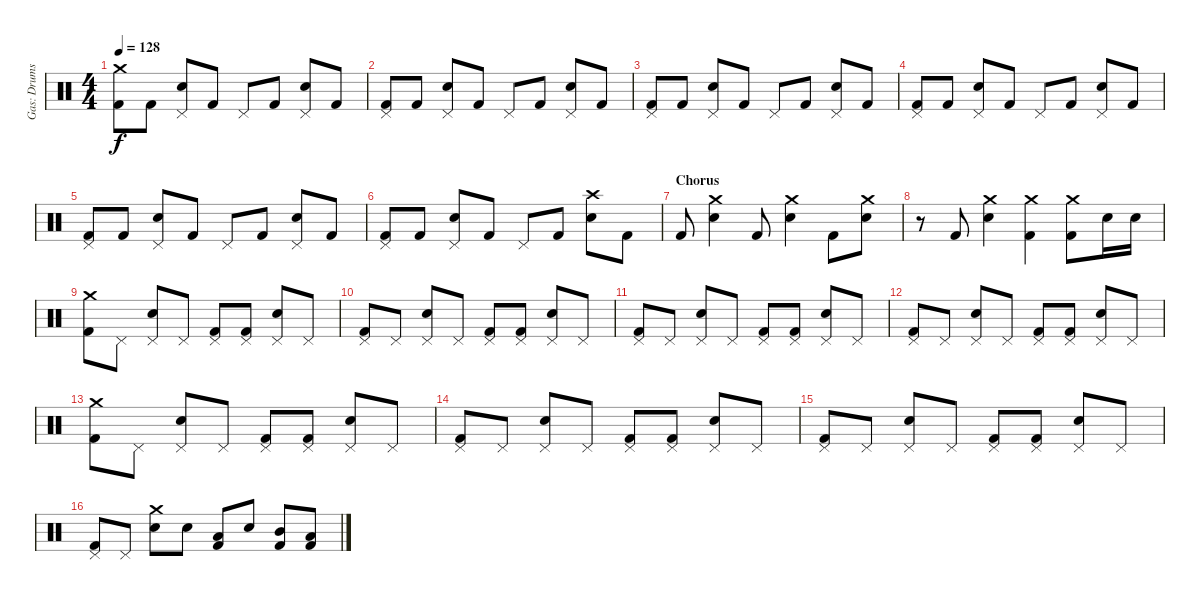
\track ("Gas: Drums" "Gas: Drums") {instrument percussion}
\staff {score}
\articulation defaults
\ts (4 4)
\tempo 128
\clef neutral
\ks c
("Crash medium (hit)" "Kick (hit) 2").8{dy f} "Kick (hit) 2".8 ("Pedal Hi-Hat (hit)" "Electric Snare (hit)").8 "Kick (hit) 2".8 "Pedal Hi-Hat (hit)".8 "Kick (hit) 2".8 ("Pedal Hi-Hat (hit)" "Electric Snare (hit)").8 "Kick (hit) 2".8 |
("Pedal Hi-Hat (hit)" "Kick (hit) 2").8 "Kick (hit) 2".8 ("Pedal Hi-Hat (hit)" "Electric Snare (hit)").8 "Kick (hit) 2".8 "Pedal Hi-Hat (hit)".8 "Kick (hit) 2".8 ("Pedal Hi-Hat (hit)" "Electric Snare (hit)").8 "Kick (hit) 2".8 |
("Pedal Hi-Hat (hit)" "Kick (hit) 2").8 "Kick (hit) 2".8 ("Pedal Hi-Hat (hit)" "Electric Snare (hit)").8 "Kick (hit) 2".8 "Pedal Hi-Hat (hit)".8 "Kick (hit) 2".8 ("Pedal Hi-Hat (hit)" "Electric Snare (hit)").8 "Kick (hit) 2".8 |
("Pedal Hi-Hat (hit)" "Kick (hit) 2").8 "Kick (hit) 2".8 ("Pedal Hi-Hat (hit)" "Electric Snare (hit)").8 "Kick (hit) 2".8 "Pedal Hi-Hat (hit)".8 "Kick (hit) 2".8 ("Pedal Hi-Hat (hit)" "Electric Snare (hit)").8 "Kick (hit) 2".8 |
("Pedal Hi-Hat (hit)" "Kick (hit) 2").8 "Kick (hit) 2".8 ("Pedal Hi-Hat (hit)" "Electric Snare (hit)").8 "Kick (hit) 2".8 "Pedal Hi-Hat (hit)".8 "Kick (hit) 2".8 ("Pedal Hi-Hat (hit)" "Electric Snare (hit)").8 "Kick (hit) 2".8 |
("Pedal Hi-Hat (hit)" "Kick (hit) 2").8 "Kick (hit) 2".8 ("Pedal Hi-Hat (hit)" "Electric Snare (hit)").8 "Kick (hit) 2".8 "Pedal Hi-Hat (hit)".8 "Kick (hit) 2".8 ("Crash high (hit)" "Electric Snare (hit)").8 "Kick (hit) 2".8 |
\section ("" "Chorus")
"Kick (hit) 2".8 ("Crash medium (hit)" "Electric Snare (hit)").4 "Kick (hit) 2".8 ("Crash medium (hit)" "Electric Snare (hit)").4 "Kick (hit) 2".8 ("Crash medium (hit)" "Electric Snare (hit)").8 |
r.8 "Kick (hit) 2".8 ("Crash medium (hit)" "Electric Snare (hit)").4 ("Crash medium (hit)" "Kick (hit) 2").4 ("Crash medium (hit)" "Kick (hit) 2").8 "Electric Snare (hit)".16 "Electric Snare (hit)".16 |
("Crash medium (hit)" "Kick (hit) 2").8 "Pedal Hi-Hat (hit)".8 ("Pedal Hi-Hat (hit)" "Electric Snare (hit)").8 "Pedal Hi-Hat (hit)".8 ("Pedal Hi-Hat (hit)" "Kick (hit) 2").8 ("Pedal Hi-Hat (hit)" "Kick (hit) 2").8 ("Pedal Hi-Hat (hit)" "Electric Snare (hit)").8 "Pedal Hi-Hat (hit)".8 |
("Pedal Hi-Hat (hit)" "Kick (hit) 2").8 "Pedal Hi-Hat (hit)".8 ("Pedal Hi-Hat (hit)" "Electric Snare (hit)").8 "Pedal Hi-Hat (hit)".8 ("Pedal Hi-Hat (hit)" "Kick (hit) 2").8 ("Pedal Hi-Hat (hit)" "Kick (hit) 2").8 ("Pedal Hi-Hat (hit)" "Electric Snare (hit)").8 "Pedal Hi-Hat (hit)".8 |
("Pedal Hi-Hat (hit)" "Kick (hit) 2").8 "Pedal Hi-Hat (hit)".8 ("Pedal Hi-Hat (hit)" "Electric Snare (hit)").8 "Pedal Hi-Hat (hit)".8 ("Pedal Hi-Hat (hit)" "Kick (hit) 2").8 ("Pedal Hi-Hat (hit)" "Kick (hit) 2").8 ("Pedal Hi-Hat (hit)" "Electric Snare (hit)").8 "Pedal Hi-Hat (hit)".8 |
("Pedal Hi-Hat (hit)" "Kick (hit) 2").8 "Pedal Hi-Hat (hit)".8 ("Pedal Hi-Hat (hit)" "Electric Snare (hit)").8 "Pedal Hi-Hat (hit)".8 ("Pedal Hi-Hat (hit)" "Kick (hit) 2").8 ("Pedal Hi-Hat (hit)" "Kick (hit) 2").8 ("Pedal Hi-Hat (hit)" "Electric Snare (hit)").8 "Pedal Hi-Hat (hit)".8 |
("Crash medium (hit)" "Kick (hit) 2").8 "Pedal Hi-Hat (hit)".8 ("Pedal Hi-Hat (hit)" "Electric Snare (hit)").8 "Pedal Hi-Hat (hit)".8 ("Pedal Hi-Hat (hit)" "Kick (hit) 2").8 ("Pedal Hi-Hat (hit)" "Kick (hit) 2").8 ("Pedal Hi-Hat (hit)" "Electric Snare (hit)").8 "Pedal Hi-Hat (hit)".8 |
("Pedal Hi-Hat (hit)" "Kick (hit) 2").8 "Pedal Hi-Hat (hit)".8 ("Pedal Hi-Hat (hit)" "Electric Snare (hit)").8 "Pedal Hi-Hat (hit)".8 ("Pedal Hi-Hat (hit)" "Kick (hit) 2").8 ("Pedal Hi-Hat (hit)" "Kick (hit) 2").8 ("Pedal Hi-Hat (hit)" "Electric Snare (hit)").8 "Pedal Hi-Hat (hit)".8 |
("Pedal Hi-Hat (hit)" "Kick (hit) 2").8 "Pedal Hi-Hat (hit)".8 ("Pedal Hi-Hat (hit)" "Electric Snare (hit)").8 "Pedal Hi-Hat (hit)".8 ("Pedal Hi-Hat (hit)" "Kick (hit) 2").8 ("Pedal Hi-Hat (hit)" "Kick (hit) 2").8 ("Pedal Hi-Hat (hit)" "Electric Snare (hit)").8 "Pedal Hi-Hat (hit)".8 |
("Pedal Hi-Hat (hit)" "Kick (hit) 2").8 "Pedal Hi-Hat (hit)".8 ("Crash medium (hit)" "Electric Snare (hit)").8 "Electric Snare (hit)".8 ("Low Tom (hit)" "Kick (hit) 2").8 "Electric Snare (hit)".8 ("Mid Tom (hit)" "Kick (hit) 2").8 ("Low Tom (hit)" "Kick (hit) 2").8
